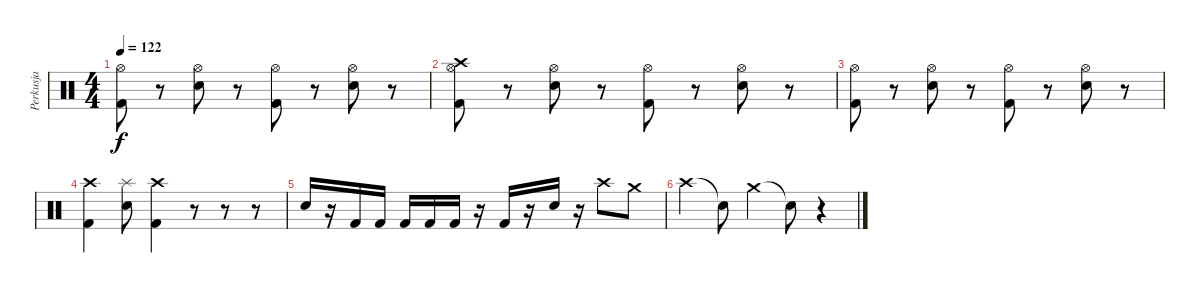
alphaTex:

\track ("Perkusja" "Perkusja") {instrument percussion}
\staff {score}
\articulation defaults
\ts (4 4)
\tempo 122
\clef neutral
\ks c
("Kick (hit) 2" "Hi-Hat (open)").8{dy f} r.8 ("Snare (hit) 2" "Hi-Hat (open)").8 r.8 ("Kick (hit) 2" "Hi-Hat (open)").8 r.8 ("Snare (hit) 2" "Hi-Hat (open)").8 r.8 |
("Kick (hit) 2" "Hi-Hat (open)" "Crash high (hit)").8 r.8 ("Snare (hit) 2" "Hi-Hat (open)").8 r.8 ("Kick (hit) 2" "Hi-Hat (open)").8 r.8 ("Snare (hit) 2" "Hi-Hat (open)").8 r.8 |
("Kick (hit) 2" "Hi-Hat (open)").8 r.8 ("Snare (hit) 2" "Hi-Hat (open)").8 r.8 ("Kick (hit) 2" "Hi-Hat (open)").8 r.8 ("Snare (hit) 2" "Hi-Hat (open)").8 r.8 |
("Kick (hit) 2" "Crash high (hit)").4 ("Snare (hit) 2" "Splash (hit)").8 ("Kick (hit) 2" "Crash high (hit)").4 r.8 r.8 r.8 |
"Snare (hit) 2".16 r.16 "Kick (hit) 2".16 "Kick (hit) 2".16 "Kick (hit) 2".16 "Kick (hit) 2".16 "Kick (hit) 2".16 r.16 "Kick (hit) 2".16 r.16 "Snare (hit) 2".16 r.16 "Crash high (hit)".8 "Crash medium (hit)".8 |
"Crash high (hit)".4 "Snare (hit)"{t}.8 "Crash medium (hit)".4 "Snare (hit)"{t}.8 r.4
